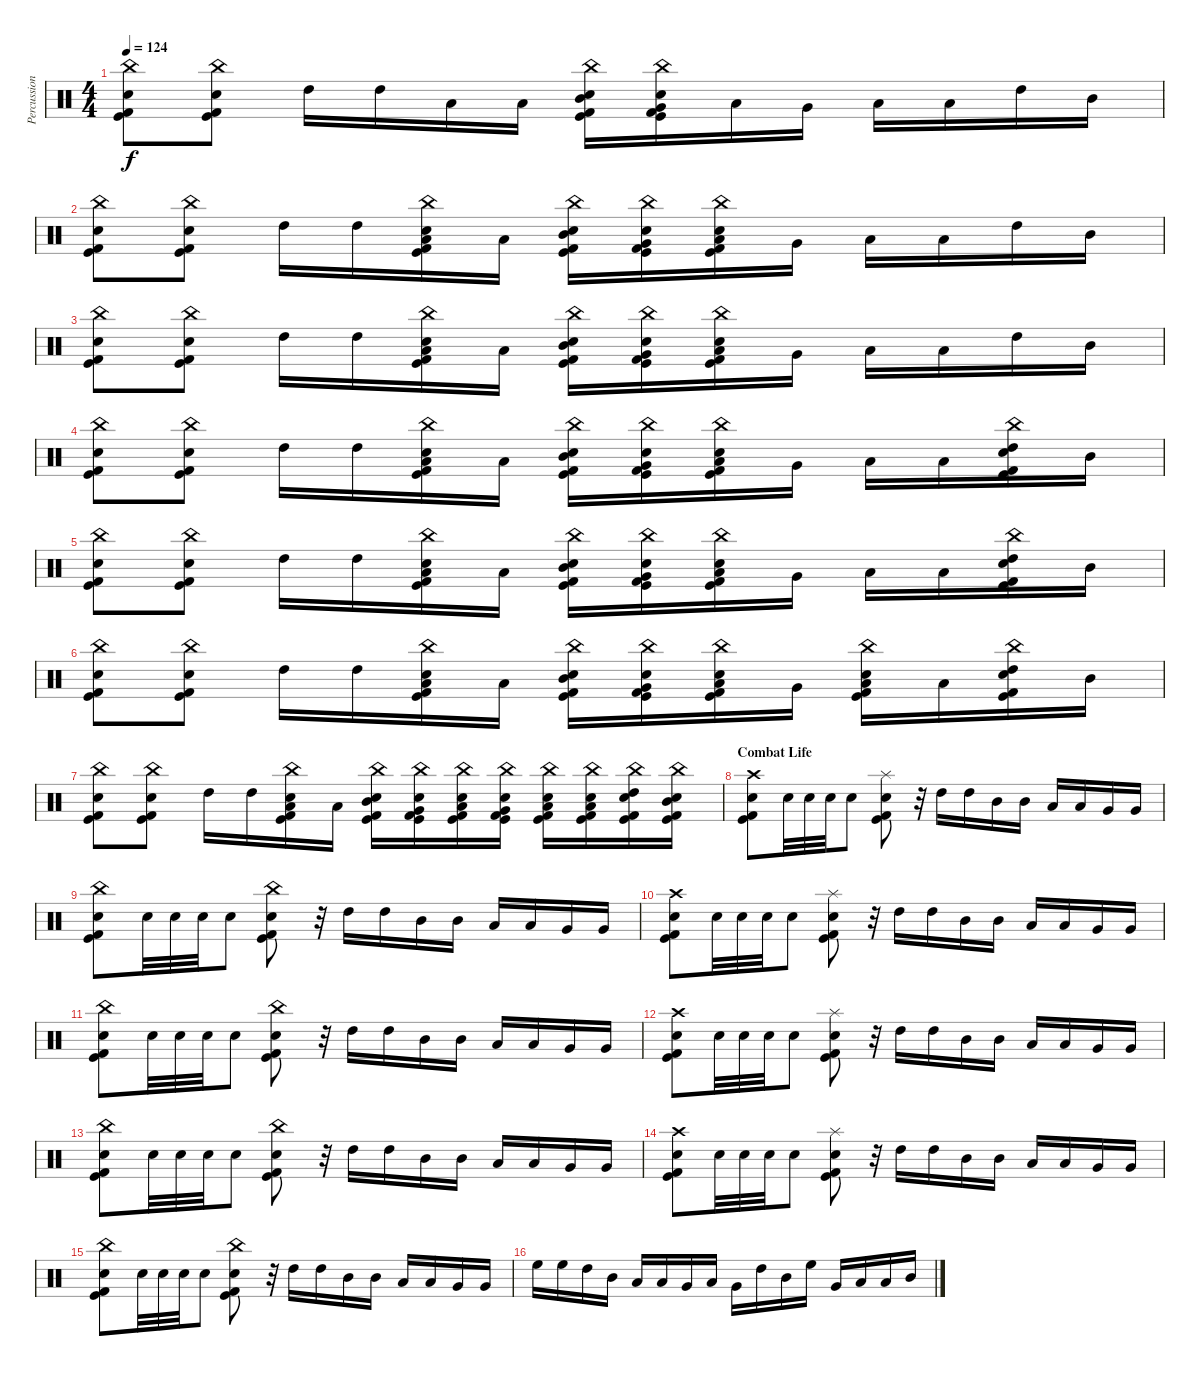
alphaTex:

\track ("Percussion" "Percussion") {instrument percussion}
\staff {score}
\articulation defaults
\ts (4 4)
\tempo 124
\clef neutral
\ks c
("China (hit)" "Snare (hit) 2" "Kick (hit) 2" "Kick (hit)").8{dy f} ("China (hit)" "Snare (hit) 2" "Kick (hit) 2" "Kick (hit)").8 "High Tom (hit)".16 "High Tom (hit)".16 "Low Tom (hit)".16 "Low Tom (hit)".16 ("China (hit)" "Snare (hit) 2" "Mid Tom (hit)" "Kick (hit) 2" "Kick (hit)").16 ("China (hit)" "Snare (hit) 2" "Very Low Tom (hit)" "Kick (hit) 2" "Kick (hit)").16 "Low Floor Tom (hit)".16 "Very Low Tom (hit)".16 "Low Tom (hit)".16 "Low Tom (hit)".16 "High Tom (hit)".16 "Mid Tom (hit)".16 |
("China (hit)" "Snare (hit) 2" "Kick (hit) 2" "Kick (hit)").8 ("China (hit)" "Snare (hit) 2" "Kick (hit) 2" "Kick (hit)").8 "High Tom (hit)".16 "High Tom (hit)".16 ("China (hit)" "Snare (hit) 2" "Low Tom (hit)" "Kick (hit) 2" "Kick (hit)").16 "Low Tom (hit)".16 ("China (hit)" "Snare (hit) 2" "Mid Tom (hit)" "Kick (hit) 2" "Kick (hit)").16 ("China (hit)" "Snare (hit) 2" "Very Low Tom (hit)" "Kick (hit) 2" "Kick (hit)").16 ("China (hit)" "Snare (hit) 2" "Low Floor Tom (hit)" "Kick (hit) 2" "Kick (hit)").16 "Very Low Tom (hit)".16 "Low Tom (hit)".16 "Low Tom (hit)".16 "High Tom (hit)".16 "Mid Tom (hit)".16 |
("China (hit)" "Snare (hit) 2" "Kick (hit) 2" "Kick (hit)").8 ("China (hit)" "Snare (hit) 2" "Kick (hit) 2" "Kick (hit)").8 "High Tom (hit)".16 "High Tom (hit)".16 ("China (hit)" "Snare (hit) 2" "Low Tom (hit)" "Kick (hit) 2" "Kick (hit)").16 "Low Tom (hit)".16 ("China (hit)" "Snare (hit) 2" "Mid Tom (hit)" "Kick (hit) 2" "Kick (hit)").16 ("China (hit)" "Snare (hit) 2" "Very Low Tom (hit)" "Kick (hit) 2" "Kick (hit)").16 ("China (hit)" "Snare (hit) 2" "Low Floor Tom (hit)" "Kick (hit) 2" "Kick (hit)").16 "Very Low Tom (hit)".16 "Low Tom (hit)".16 "Low Tom (hit)".16 "High Tom (hit)".16 "Mid Tom (hit)".16 |
("China (hit)" "Snare (hit) 2" "Kick (hit) 2" "Kick (hit)").8 ("China (hit)" "Snare (hit) 2" "Kick (hit) 2" "Kick (hit)").8 "High Tom (hit)".16 "High Tom (hit)".16 ("China (hit)" "Snare (hit) 2" "Low Tom (hit)" "Kick (hit) 2" "Kick (hit)").16 "Low Tom (hit)".16 ("China (hit)" "Snare (hit) 2" "Mid Tom (hit)" "Kick (hit) 2" "Kick (hit)").16 ("China (hit)" "Snare (hit) 2" "Very Low Tom (hit)" "Kick (hit) 2" "Kick (hit)").16 ("China (hit)" "Snare (hit) 2" "Low Floor Tom (hit)" "Kick (hit) 2" "Kick (hit)").16 "Very Low Tom (hit)".16 "Low Tom (hit)".16 "Low Tom (hit)".16 ("China (hit)" "Snare (hit) 2" "High Tom (hit)" "Kick (hit) 2" "Kick (hit)").16 "Mid Tom (hit)".16 |
("China (hit)" "Snare (hit) 2" "Kick (hit) 2" "Kick (hit)").8 ("China (hit)" "Snare (hit) 2" "Kick (hit) 2" "Kick (hit)").8 "High Tom (hit)".16 "High Tom (hit)".16 ("China (hit)" "Snare (hit) 2" "Low Tom (hit)" "Kick (hit) 2" "Kick (hit)").16 "Low Tom (hit)".16 ("China (hit)" "Snare (hit) 2" "Mid Tom (hit)" "Kick (hit) 2" "Kick (hit)").16 ("China (hit)" "Snare (hit) 2" "Very Low Tom (hit)" "Kick (hit) 2" "Kick (hit)").16 ("China (hit)" "Snare (hit) 2" "Low Floor Tom (hit)" "Kick (hit) 2" "Kick (hit)").16 "Very Low Tom (hit)".16 "Low Tom (hit)".16 "Low Tom (hit)".16 ("China (hit)" "Snare (hit) 2" "High Tom (hit)" "Kick (hit) 2" "Kick (hit)").16 "Mid Tom (hit)".16 |
("China (hit)" "Snare (hit) 2" "Kick (hit) 2" "Kick (hit)").8 ("China (hit)" "Snare (hit) 2" "Kick (hit) 2" "Kick (hit)").8 "High Tom (hit)".16 "High Tom (hit)".16 ("China (hit)" "Snare (hit) 2" "Low Tom (hit)" "Kick (hit) 2" "Kick (hit)").16 "Low Tom (hit)".16 ("China (hit)" "Snare (hit) 2" "Mid Tom (hit)" "Kick (hit) 2" "Kick (hit)").16 ("China (hit)" "Snare (hit) 2" "Very Low Tom (hit)" "Kick (hit) 2" "Kick (hit)").16 ("China (hit)" "Snare (hit) 2" "Low Floor Tom (hit)" "Kick (hit) 2" "Kick (hit)").16 "Very Low Tom (hit)".16 ("China (hit)" "Snare (hit) 2" "Low Tom (hit)" "Kick (hit) 2" "Kick (hit)").16 "Low Tom (hit)".16 ("China (hit)" "Snare (hit) 2" "High Tom (hit)" "Kick (hit) 2" "Kick (hit)").16 "Mid Tom (hit)".16 |
("China (hit)" "Snare (hit) 2" "Kick (hit) 2" "Kick (hit)").8 ("China (hit)" "Snare (hit) 2" "Kick (hit) 2" "Kick (hit)").8 "High Tom (hit)".16 "High Tom (hit)".16 ("China (hit)" "Snare (hit) 2" "Low Tom (hit)" "Kick (hit) 2" "Kick (hit)").16 "Low Tom (hit)".16 ("China (hit)" "Snare (hit) 2" "Mid Tom (hit)" "Kick (hit) 2" "Kick (hit)").16 ("China (hit)" "Snare (hit) 2" "Very Low Tom (hit)" "Kick (hit) 2" "Kick (hit)").16 ("China (hit)" "Snare (hit) 2" "Low Floor Tom (hit)" "Kick (hit) 2" "Kick (hit)").16 ("China (hit)" "Snare (hit) 2" "Very Low Tom (hit)" "Kick (hit) 2" "Kick (hit)").16 ("China (hit)" "Snare (hit) 2" "Low Tom (hit)" "Kick (hit) 2" "Kick (hit)").16 ("China (hit)" "Snare (hit) 2" "Low Tom (hit)" "Kick (hit) 2" "Kick (hit)").16 ("China (hit)" "Snare (hit) 2" "High Tom (hit)" "Kick (hit) 2" "Kick (hit)").16 ("China (hit)" "Snare (hit) 2" "Mid Tom (hit)" "Kick (hit) 2" "Kick (hit)").16 |
\section ("" "Combat Life")
("Crash high (hit)" "Snare (hit) 2" "Kick (hit) 2" "Kick (hit)").8 "Snare (hit) 2".32 "Snare (hit) 2".32 "Snare (hit) 2".32 "Snare (hit) 2".8 ("Splash (hit)" "Snare (hit) 2" "Kick (hit) 2" "Kick (hit)").8 r.32 "High Tom (hit)".16 "High Tom (hit)".16 "Mid Tom (hit)".16 "Mid Tom (hit)".16 "Low Tom (hit)".16 "Low Tom (hit)".16 "Very Low Tom (hit)".16 "Very Low Tom (hit)".16 |
("China (hit)" "Snare (hit) 2" "Kick (hit) 2" "Kick (hit)").8 "Snare (hit) 2".32 "Snare (hit) 2".32 "Snare (hit) 2".32 "Snare (hit) 2".8 ("China (hit)" "Snare (hit) 2" "Kick (hit) 2" "Kick (hit)").8 r.32 "High Tom (hit)".16 "High Tom (hit)".16 "Mid Tom (hit)".16 "Mid Tom (hit)".16 "Low Tom (hit)".16 "Low Tom (hit)".16 "Very Low Tom (hit)".16 "Very Low Tom (hit)".16 |
("Crash high (hit)" "Snare (hit) 2" "Kick (hit) 2" "Kick (hit)").8 "Snare (hit) 2".32 "Snare (hit) 2".32 "Snare (hit) 2".32 "Snare (hit) 2".8 ("Splash (hit)" "Snare (hit) 2" "Kick (hit) 2" "Kick (hit)").8 r.32 "High Tom (hit)".16 "High Tom (hit)".16 "Mid Tom (hit)".16 "Mid Tom (hit)".16 "Low Tom (hit)".16 "Low Tom (hit)".16 "Very Low Tom (hit)".16 "Very Low Tom (hit)".16 |
("China (hit)" "Snare (hit) 2" "Kick (hit) 2" "Kick (hit)").8 "Snare (hit) 2".32 "Snare (hit) 2".32 "Snare (hit) 2".32 "Snare (hit) 2".8 ("China (hit)" "Snare (hit) 2" "Kick (hit) 2" "Kick (hit)").8 r.32 "High Tom (hit)".16 "High Tom (hit)".16 "Mid Tom (hit)".16 "Mid Tom (hit)".16 "Low Tom (hit)".16 "Low Tom (hit)".16 "Very Low Tom (hit)".16 "Very Low Tom (hit)".16 |
("Crash high (hit)" "Snare (hit) 2" "Kick (hit) 2" "Kick (hit)").8 "Snare (hit) 2".32 "Snare (hit) 2".32 "Snare (hit) 2".32 "Snare (hit) 2".8 ("Splash (hit)" "Snare (hit) 2" "Kick (hit) 2" "Kick (hit)").8 r.32 "High Tom (hit)".16 "High Tom (hit)".16 "Mid Tom (hit)".16 "Mid Tom (hit)".16 "Low Tom (hit)".16 "Low Tom (hit)".16 "Very Low Tom (hit)".16 "Very Low Tom (hit)".16 |
("China (hit)" "Snare (hit) 2" "Kick (hit) 2" "Kick (hit)").8 "Snare (hit) 2".32 "Snare (hit) 2".32 "Snare (hit) 2".32 "Snare (hit) 2".8 ("China (hit)" "Snare (hit) 2" "Kick (hit) 2" "Kick (hit)").8 r.32 "High Tom (hit)".16 "High Tom (hit)".16 "Mid Tom (hit)".16 "Mid Tom (hit)".16 "Low Tom (hit)".16 "Low Tom (hit)".16 "Very Low Tom (hit)".16 "Very Low Tom (hit)".16 |
("Crash high (hit)" "Snare (hit) 2" "Kick (hit) 2" "Kick (hit)").8 "Snare (hit) 2".32 "Snare (hit) 2".32 "Snare (hit) 2".32 "Snare (hit) 2".8 ("Splash (hit)" "Snare (hit) 2" "Kick (hit) 2" "Kick (hit)").8 r.32 "High Tom (hit)".16 "High Tom (hit)".16 "Mid Tom (hit)".16 "Mid Tom (hit)".16 "Low Tom (hit)".16 "Low Tom (hit)".16 "Very Low Tom (hit)".16 "Very Low Tom (hit)".16 |
("China (hit)" "Snare (hit) 2" "Kick (hit) 2" "Kick (hit)").8 "Snare (hit) 2".32 "Snare (hit) 2".32 "Snare (hit) 2".32 "Snare (hit) 2".8 ("China (hit)" "Snare (hit) 2" "Kick (hit) 2" "Kick (hit)").8 r.32 "High Tom (hit)".16 "High Tom (hit)".16 "Mid Tom (hit)".16 "Mid Tom (hit)".16 "Low Tom (hit)".16 "Low Tom (hit)".16 "Very Low Tom (hit)".16 "Very Low Tom (hit)".16 |
"High Floor Tom (hit)".16 "High Floor Tom (hit)".16 "High Tom (hit)".16 "Mid Tom (hit)".16 "Low Tom (hit)".16 "Low Tom (hit)".16 "Very Low Tom (hit)".16 "Low Floor Tom (hit)".16 "Very Low Tom (hit)".16 "High Tom (hit)".16 "Mid Tom (hit)".16 "High Floor Tom (hit)".16 "Very Low Tom (hit)".16 "Low Floor Tom (hit)".16 "Low Tom (hit)".16 "Mid Tom (hit)".16
